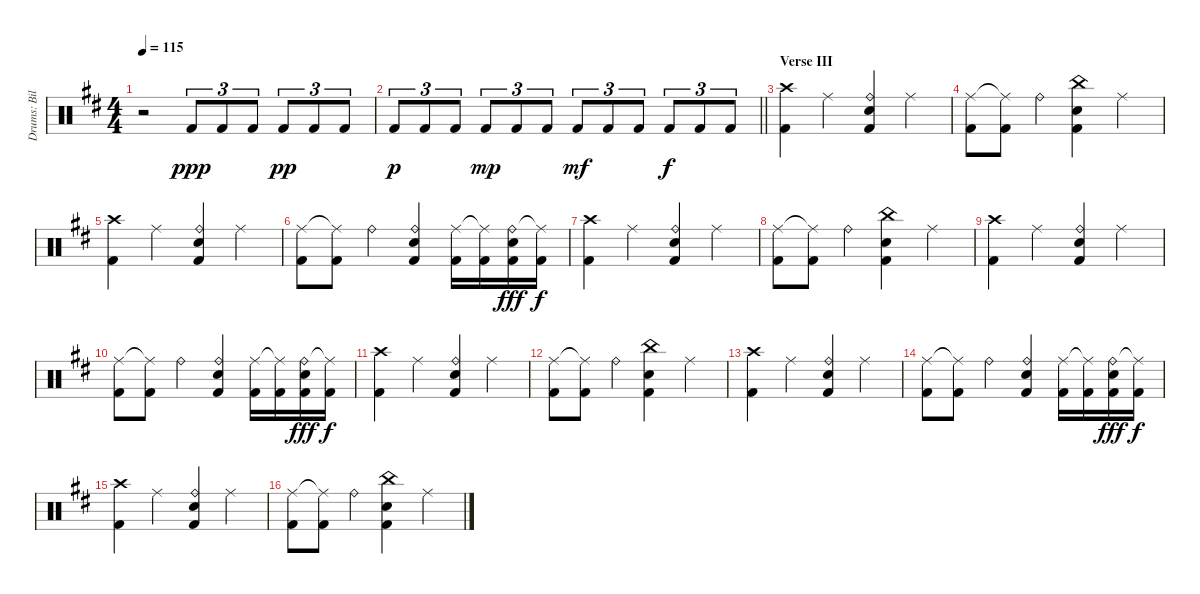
\track ("Drums: Bill" "Drums: Bil") {instrument percussion}
\staff {score}
\articulation defaults
\ts (4 4)
\tempo 115
\clef neutral
\ks d
r.2{dy fff} "Kick (hit) 2".8{tu (3 2) dy ppp} "Kick (hit) 2".8{tu (3 2)} "Kick (hit) 2".8{tu (3 2)} "Kick (hit) 2".8{tu (3 2) dy pp} "Kick (hit) 2".8{tu (3 2)} "Kick (hit) 2".8{tu (3 2)} |
\barLineRight lightlight "Kick (hit) 2".8{tu (3 2) dy p} "Kick (hit) 2".8{tu (3 2)} "Kick (hit) 2".8{tu (3 2)} "Kick (hit) 2".8{tu (3 2) dy mp} "Kick (hit) 2".8{tu (3 2)} "Kick (hit) 2".8{tu (3 2)} "Kick (hit) 2".8{tu (3 2) dy mf} "Kick (hit) 2".8{tu (3 2)} "Kick (hit) 2".8{tu (3 2)} "Kick (hit) 2".8{tu (3 2) dy f} "Kick (hit) 2".8{tu (3 2)} "Kick (hit) 2".8{tu (3 2)}
|
\section ("" "Verse III")
("Crash high (hit)" "Kick (hit) 2").4 "Ride (middle)".4 ("Ride (bell)" "Snare (hit) 2" "Kick (hit) 2").4 "Ride (middle)".4 |
("Ride (middle)" "Kick (hit) 2").8 ("Ride (middle)"{t} "Kick (hit) 2").8 "Ride (bell)".4 ("China (hit)" "Snare (hit) 2" "Kick (hit) 2").4 "Ride (middle)".4 |
("Crash high (hit)" "Kick (hit) 2").4 "Ride (middle)".4 ("Ride (bell)" "Snare (hit) 2" "Kick (hit) 2").4 "Ride (middle)".4 |
("Ride (middle)" "Kick (hit) 2").8 ("Ride (middle)"{t} "Kick (hit) 2").8 "Ride (bell)".4 ("Ride (bell)" "Snare (hit) 2" "Kick (hit) 2").4 ("Ride (middle)" "Kick (hit) 2").16 ("Ride (middle)"{t} "Kick (hit) 2").16 ("Ride (bell)" "Snare (hit) 2" "Kick (hit) 2").16{dy fff} ("Ride (middle)"{t} "Kick (hit) 2").16{dy f} |
("Crash high (hit)" "Kick (hit) 2").4 "Ride (middle)".4 ("Ride (bell)" "Snare (hit) 2" "Kick (hit) 2").4 "Ride (middle)".4 |
("Ride (middle)" "Kick (hit) 2").8 ("Ride (middle)"{t} "Kick (hit) 2").8 "Ride (bell)".4 ("China (hit)" "Snare (hit) 2" "Kick (hit) 2").4 "Ride (middle)".4 |
("Crash high (hit)" "Kick (hit) 2").4 "Ride (middle)".4 ("Ride (bell)" "Snare (hit) 2" "Kick (hit) 2").4 "Ride (middle)".4 |
("Ride (middle)" "Kick (hit) 2").8 ("Ride (middle)"{t} "Kick (hit) 2").8 "Ride (bell)".4 ("Ride (bell)" "Snare (hit) 2" "Kick (hit) 2").4 ("Ride (middle)" "Kick (hit) 2").16 ("Ride (middle)"{t} "Kick (hit) 2").16 ("Ride (bell)" "Snare (hit) 2" "Kick (hit) 2").16{dy fff} ("Ride (middle)"{t} "Kick (hit) 2").16{dy f} |
("Crash high (hit)" "Kick (hit) 2").4 "Ride (middle)".4 ("Ride (bell)" "Snare (hit) 2" "Kick (hit) 2").4 "Ride (middle)".4 |
("Ride (middle)" "Kick (hit) 2").8 ("Ride (middle)"{t} "Kick (hit) 2").8 "Ride (bell)".4 ("China (hit)" "Snare (hit) 2" "Kick (hit) 2").4 "Ride (middle)".4 |
("Crash high (hit)" "Kick (hit) 2").4 "Ride (middle)".4 ("Ride (bell)" "Snare (hit) 2" "Kick (hit) 2").4 "Ride (middle)".4 |
("Ride (middle)" "Kick (hit) 2").8 ("Ride (middle)"{t} "Kick (hit) 2").8 "Ride (bell)".4 ("Ride (bell)" "Snare (hit) 2" "Kick (hit) 2").4 ("Ride (middle)" "Kick (hit) 2").16 ("Ride (middle)"{t} "Kick (hit) 2").16 ("Ride (bell)" "Snare (hit) 2" "Kick (hit) 2").16{dy fff} ("Ride (middle)"{t} "Kick (hit) 2").16{dy f} |
("Crash high (hit)" "Kick (hit) 2").4 "Ride (middle)".4 ("Ride (bell)" "Snare (hit) 2" "Kick (hit) 2").4 "Ride (middle)".4 |
("Ride (middle)" "Kick (hit) 2").8 ("Ride (middle)"{t} "Kick (hit) 2").8 "Ride (bell)".4 ("China (hit)" "Snare (hit) 2" "Kick (hit) 2").4 "Ride (middle)".4
